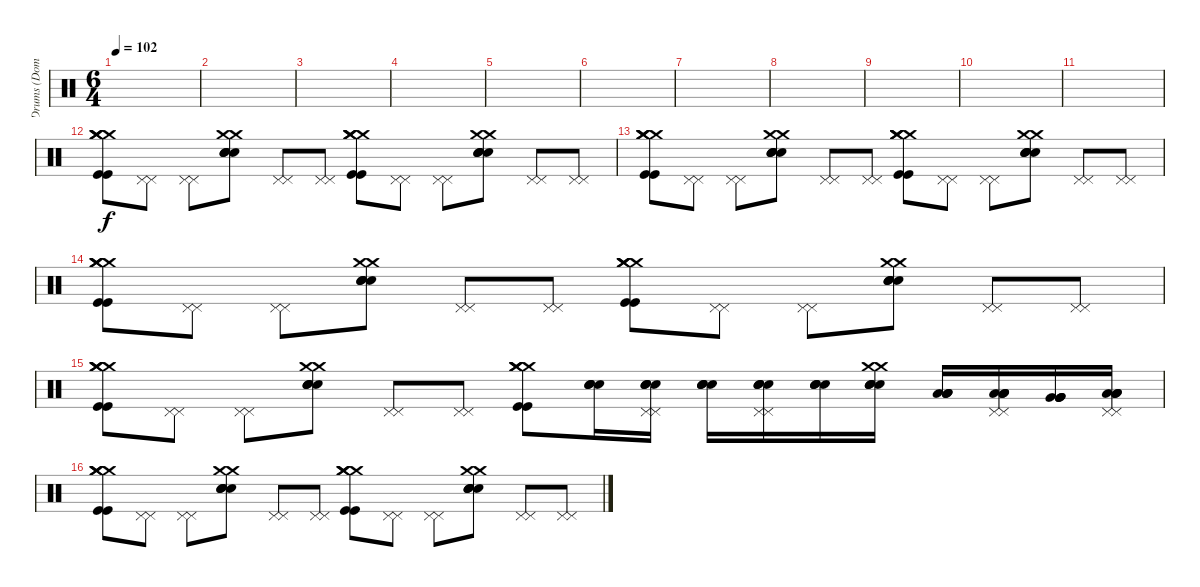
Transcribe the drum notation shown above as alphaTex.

\track ("Drums (Dom)" "Drums (Dom") {instrument percussion}
\staff {score}
\articulation defaults
\ts (6 4)
\tempo 102
\clef neutral
\ks c
|
|
|
|
|
|
|
|
|
|
|
("Crash medium (hit)" "Crash medium (hit)" "Crash medium (hit)" "Crash medium (hit)" "Kick (hit)" "Kick (hit)").8 ("Pedal Hi-Hat (hit)" "Pedal Hi-Hat (hit)").8 ("Pedal Hi-Hat (hit)" "Pedal Hi-Hat (hit)").8 ("Crash medium (hit)" "Crash medium (hit)" "Electric Snare (hit)" "Electric Snare (hit)" "Electric Snare (hit)" "Electric Snare (hit)").8 ("Pedal Hi-Hat (hit)" "Pedal Hi-Hat (hit)").8 ("Pedal Hi-Hat (hit)" "Pedal Hi-Hat (hit)").8 ("Crash medium (hit)" "Crash medium (hit)" "Crash medium (hit)" "Crash medium (hit)" "Kick (hit)" "Kick (hit)").8 ("Pedal Hi-Hat (hit)" "Pedal Hi-Hat (hit)").8 ("Pedal Hi-Hat (hit)" "Pedal Hi-Hat (hit)").8 ("Crash medium (hit)" "Crash medium (hit)" "Electric Snare (hit)" "Electric Snare (hit)" "Electric Snare (hit)" "Electric Snare (hit)").8 ("Pedal Hi-Hat (hit)" "Pedal Hi-Hat (hit)").8 ("Pedal Hi-Hat (hit)" "Pedal Hi-Hat (hit)").8 |
("Crash medium (hit)" "Crash medium (hit)" "Crash medium (hit)" "Crash medium (hit)" "Kick (hit)" "Kick (hit)").8 ("Pedal Hi-Hat (hit)" "Pedal Hi-Hat (hit)").8 ("Pedal Hi-Hat (hit)" "Pedal Hi-Hat (hit)").8 ("Crash medium (hit)" "Crash medium (hit)" "Electric Snare (hit)" "Electric Snare (hit)" "Electric Snare (hit)" "Electric Snare (hit)").8 ("Pedal Hi-Hat (hit)" "Pedal Hi-Hat (hit)").8 ("Pedal Hi-Hat (hit)" "Pedal Hi-Hat (hit)").8 ("Crash medium (hit)" "Crash medium (hit)" "Crash medium (hit)" "Crash medium (hit)" "Kick (hit)" "Kick (hit)").8 ("Pedal Hi-Hat (hit)" "Pedal Hi-Hat (hit)").8 ("Pedal Hi-Hat (hit)" "Pedal Hi-Hat (hit)").8 ("Crash medium (hit)" "Crash medium (hit)" "Electric Snare (hit)" "Electric Snare (hit)" "Electric Snare (hit)" "Electric Snare (hit)").8 ("Pedal Hi-Hat (hit)" "Pedal Hi-Hat (hit)").8 ("Pedal Hi-Hat (hit)" "Pedal Hi-Hat (hit)").8 |
("Crash medium (hit)" "Crash medium (hit)" "Crash medium (hit)" "Crash medium (hit)" "Kick (hit)" "Kick (hit)").8 ("Pedal Hi-Hat (hit)" "Pedal Hi-Hat (hit)").8 ("Pedal Hi-Hat (hit)" "Pedal Hi-Hat (hit)").8 ("Crash medium (hit)" "Crash medium (hit)" "Electric Snare (hit)" "Electric Snare (hit)" "Electric Snare (hit)" "Electric Snare (hit)").8 ("Pedal Hi-Hat (hit)" "Pedal Hi-Hat (hit)").8 ("Pedal Hi-Hat (hit)" "Pedal Hi-Hat (hit)").8 ("Crash medium (hit)" "Crash medium (hit)" "Crash medium (hit)" "Crash medium (hit)" "Kick (hit)" "Kick (hit)").8 ("Pedal Hi-Hat (hit)" "Pedal Hi-Hat (hit)").8 ("Pedal Hi-Hat (hit)" "Pedal Hi-Hat (hit)").8 ("Crash medium (hit)" "Crash medium (hit)" "Electric Snare (hit)" "Electric Snare (hit)" "Electric Snare (hit)" "Electric Snare (hit)").8 ("Pedal Hi-Hat (hit)" "Pedal Hi-Hat (hit)").8 ("Pedal Hi-Hat (hit)" "Pedal Hi-Hat (hit)").8 |
("Crash medium (hit)" "Crash medium (hit)" "Crash medium (hit)" "Crash medium (hit)" "Kick (hit)" "Kick (hit)").8 ("Pedal Hi-Hat (hit)" "Pedal Hi-Hat (hit)").8 ("Pedal Hi-Hat (hit)" "Pedal Hi-Hat (hit)").8 ("Crash medium (hit)" "Crash medium (hit)" "Electric Snare (hit)" "Electric Snare (hit)" "Electric Snare (hit)" "Electric Snare (hit)").8 ("Pedal Hi-Hat (hit)" "Pedal Hi-Hat (hit)").8 ("Pedal Hi-Hat (hit)" "Pedal Hi-Hat (hit)").8 ("Crash medium (hit)" "Crash medium (hit)" "Crash medium (hit)" "Crash medium (hit)" "Kick (hit)" "Kick (hit)").8 ("Electric Snare (hit)" "Electric Snare (hit)" "Electric Snare (hit)" "Electric Snare (hit)").16 ("Pedal Hi-Hat (hit)" "Pedal Hi-Hat (hit)" "Electric Snare (hit)" "Electric Snare (hit)" "Electric Snare (hit)" "Electric Snare (hit)").16 ("Electric Snare (hit)" "Electric Snare (hit)" "Electric Snare (hit)" "Electric Snare (hit)").16 ("Pedal Hi-Hat (hit)" "Pedal Hi-Hat (hit)" "Electric Snare (hit)" "Electric Snare (hit)" "Electric Snare (hit)" "Electric Snare (hit)").16 ("Electric Snare (hit)" "Electric Snare (hit)" "Electric Snare (hit)" "Electric Snare (hit)").16 ("Crash medium (hit)" "Crash medium (hit)" "Electric Snare (hit)" "Electric Snare (hit)" "Electric Snare (hit)" "Electric Snare (hit)").16 ("Low Tom (hit)" "Low Tom (hit)" "Low Tom (hit)" "Low Tom (hit)").16 ("Pedal Hi-Hat (hit)" "Pedal Hi-Hat (hit)" "Low Tom (hit)" "Low Tom (hit)" "Low Tom (hit)" "Low Tom (hit)").16 ("Very Low Tom (hit)" "Very Low Tom (hit)" "Very Low Tom (hit)" "Very Low Tom (hit)").16 ("Pedal Hi-Hat (hit)" "Pedal Hi-Hat (hit)" "Low Floor Tom (hit)" "Low Floor Tom (hit)" "Low Floor Tom (hit)" "Low Floor Tom (hit)").16 |
("Crash medium (hit)" "Crash medium (hit)" "Crash medium (hit)" "Crash medium (hit)" "Kick (hit)" "Kick (hit)").8 ("Pedal Hi-Hat (hit)" "Pedal Hi-Hat (hit)").8 ("Pedal Hi-Hat (hit)" "Pedal Hi-Hat (hit)").8 ("Crash medium (hit)" "Crash medium (hit)" "Electric Snare (hit)" "Electric Snare (hit)" "Electric Snare (hit)" "Electric Snare (hit)").8 ("Pedal Hi-Hat (hit)" "Pedal Hi-Hat (hit)").8 ("Pedal Hi-Hat (hit)" "Pedal Hi-Hat (hit)").8 ("Crash medium (hit)" "Crash medium (hit)" "Crash medium (hit)" "Crash medium (hit)" "Kick (hit)" "Kick (hit)").8 ("Pedal Hi-Hat (hit)" "Pedal Hi-Hat (hit)").8 ("Pedal Hi-Hat (hit)" "Pedal Hi-Hat (hit)").8 ("Crash medium (hit)" "Crash medium (hit)" "Electric Snare (hit)" "Electric Snare (hit)" "Electric Snare (hit)" "Electric Snare (hit)").8 ("Pedal Hi-Hat (hit)" "Pedal Hi-Hat (hit)").8 ("Pedal Hi-Hat (hit)" "Pedal Hi-Hat (hit)").8
